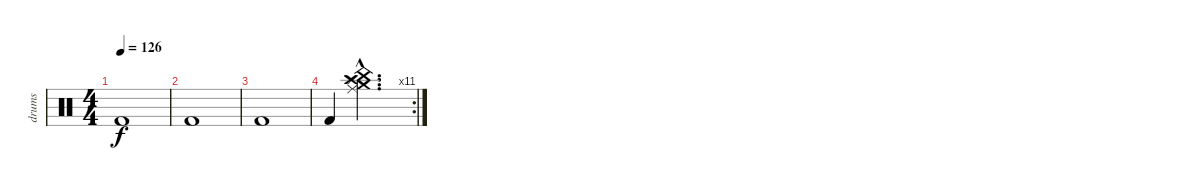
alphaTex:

\track ("drums" "drums") {instrument percussion}
\staff {score}
\articulation defaults
\ts (4 4)
\tempo 126
\clef neutral
\ks c "Kick (hit) 2".1{dy f}
|
"Kick (hit) 2".1 |
"Kick (hit) 2".1 |
\rc 11 "Kick (hit) 2".4
("Crash medium (hit)"{hac} "Ride (middle)"{hac} "Crash high (hit)"{hac} "Splash (hit)"{hac} "China (hit)"{hac}).2{d}
